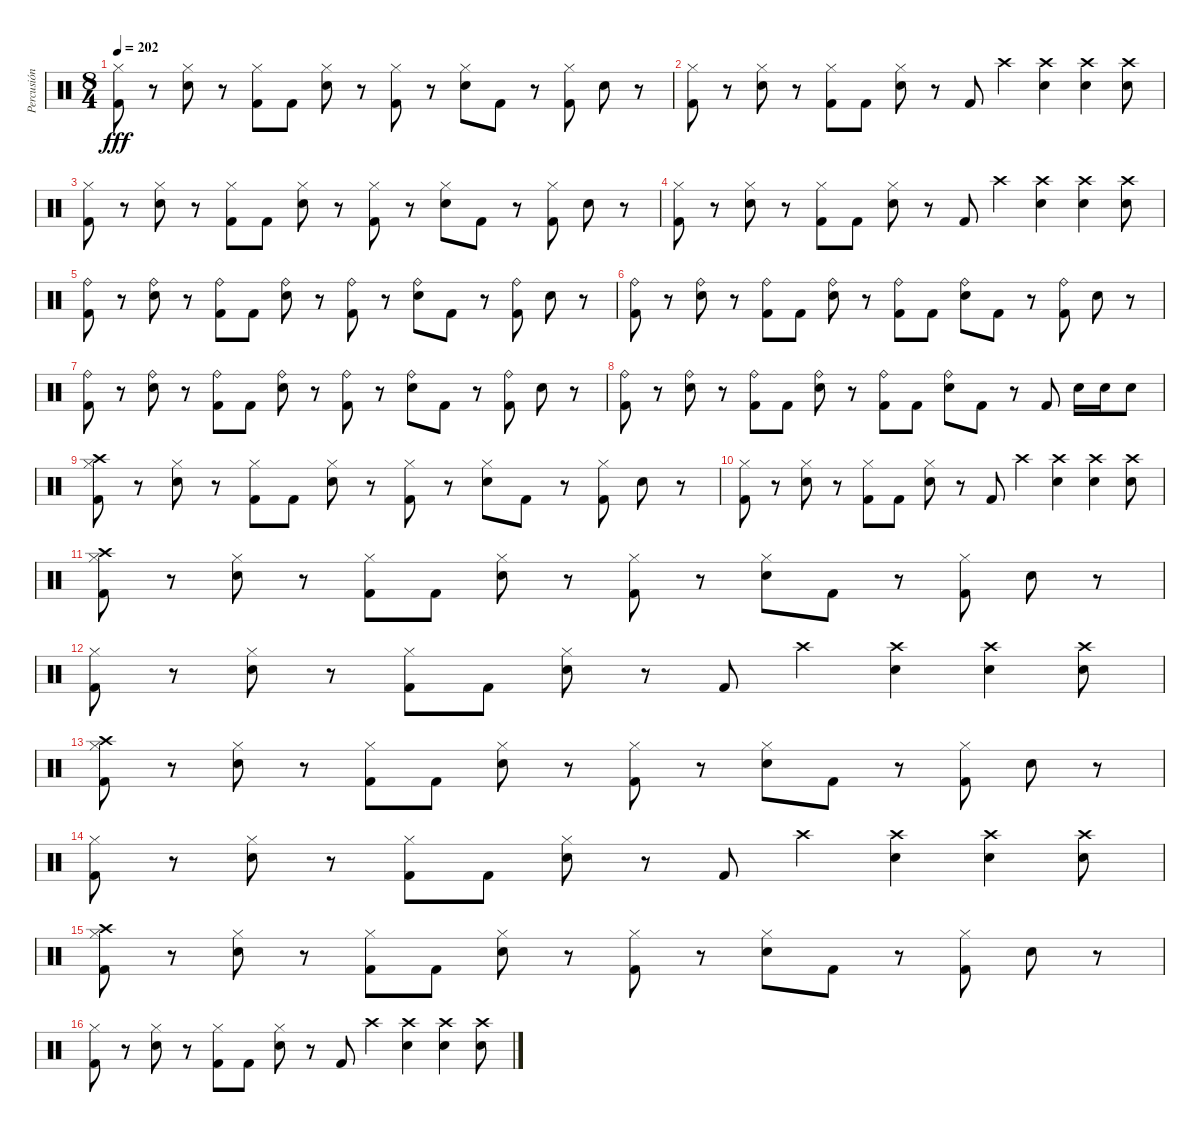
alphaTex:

\track ("Percusión (Santi Doré)" "Percusión ") {instrument percussion}
\staff {score}
\articulation defaults
\ts (8 4)
\tempo 202
\clef neutral
\ks c
("Hi-Hat (closed)" "Kick (hit) 2").8{dy fff} r.8 ("Hi-Hat (closed)" "Electric Snare (hit)").8 r.8 ("Hi-Hat (closed)" "Kick (hit) 2").8 "Kick (hit) 2".8 ("Hi-Hat (closed)" "Electric Snare (hit)").8 r.8 ("Hi-Hat (closed)" "Kick (hit) 2").8 r.8 ("Hi-Hat (closed)" "Electric Snare (hit)").8 "Kick (hit) 2".8 r.8 ("Hi-Hat (closed)" "Kick (hit) 2").8 "Electric Snare (hit)".8 r.8 |
("Hi-Hat (closed)" "Kick (hit) 2").8 r.8 ("Hi-Hat (closed)" "Electric Snare (hit)").8 r.8 ("Hi-Hat (closed)" "Kick (hit) 2").8 "Kick (hit) 2".8 ("Hi-Hat (closed)" "Electric Snare (hit)").8 r.8 "Kick (hit) 2".8 "Crash high (hit)".4 ("Crash high (hit)" "Electric Snare (hit)").4 ("Crash high (hit)" "Electric Snare (hit)").4 ("Crash high (hit)" "Electric Snare (hit)").8 |
("Hi-Hat (closed)" "Kick (hit) 2").8 r.8 ("Hi-Hat (closed)" "Electric Snare (hit)").8 r.8 ("Hi-Hat (closed)" "Kick (hit) 2").8 "Kick (hit) 2".8 ("Hi-Hat (closed)" "Electric Snare (hit)").8 r.8 ("Hi-Hat (closed)" "Kick (hit) 2").8 r.8 ("Hi-Hat (closed)" "Electric Snare (hit)").8 "Kick (hit) 2".8 r.8 ("Hi-Hat (closed)" "Kick (hit) 2").8 "Electric Snare (hit)".8 r.8 |
("Hi-Hat (closed)" "Kick (hit) 2").8 r.8 ("Hi-Hat (closed)" "Electric Snare (hit)").8 r.8 ("Hi-Hat (closed)" "Kick (hit) 2").8 "Kick (hit) 2".8 ("Hi-Hat (closed)" "Electric Snare (hit)").8 r.8 "Kick (hit) 2".8 "Crash high (hit)".4 ("Crash high (hit)" "Electric Snare (hit)").4 ("Crash high (hit)" "Electric Snare (hit)").4 ("Crash high (hit)" "Electric Snare (hit)").8 |
("Ride (bell)" "Kick (hit) 2").8 r.8 ("Ride (bell)" "Electric Snare (hit)").8 r.8 ("Ride (bell)" "Kick (hit) 2").8 "Kick (hit) 2".8 ("Ride (bell)" "Electric Snare (hit)").8 r.8 ("Ride (bell)" "Kick (hit) 2").8 r.8 ("Ride (bell)" "Electric Snare (hit)").8 "Kick (hit) 2".8 r.8 ("Ride (bell)" "Kick (hit) 2").8 "Electric Snare (hit)".8 r.8 |
("Ride (bell)" "Kick (hit) 2").8 r.8 ("Ride (bell)" "Electric Snare (hit)").8 r.8 ("Ride (bell)" "Kick (hit) 2").8 "Kick (hit) 2".8 ("Ride (bell)" "Electric Snare (hit)").8 r.8 ("Ride (bell)" "Kick (hit) 2").8 "Kick (hit) 2".8 ("Ride (bell)" "Electric Snare (hit)").8 "Kick (hit) 2".8 r.8 ("Ride (bell)" "Kick (hit) 2").8 "Electric Snare (hit)".8 r.8 |
("Ride (bell)" "Kick (hit) 2").8 r.8 ("Ride (bell)" "Electric Snare (hit)").8 r.8 ("Ride (bell)" "Kick (hit) 2").8 "Kick (hit) 2".8 ("Ride (bell)" "Electric Snare (hit)").8 r.8 ("Ride (bell)" "Kick (hit) 2").8 r.8 ("Ride (bell)" "Electric Snare (hit)").8 "Kick (hit) 2".8 r.8 ("Ride (bell)" "Kick (hit) 2").8 "Electric Snare (hit)".8 r.8 |
("Ride (bell)" "Kick (hit) 2").8 r.8 ("Ride (bell)" "Electric Snare (hit)").8 r.8 ("Ride (bell)" "Kick (hit) 2").8 "Kick (hit) 2".8 ("Ride (bell)" "Electric Snare (hit)").8 r.8 ("Ride (bell)" "Kick (hit) 2").8 "Kick (hit) 2".8 ("Ride (bell)" "Electric Snare (hit)").8 "Kick (hit) 2".8 r.8 "Kick (hit) 2".8 "Electric Snare (hit)".16 "Electric Snare (hit)".16 "Electric Snare (hit)".8 |
("Crash high (hit)" "Hi-Hat (closed)" "Kick (hit) 2").8 r.8 ("Hi-Hat (closed)" "Electric Snare (hit)").8 r.8 ("Hi-Hat (closed)" "Kick (hit) 2").8 "Kick (hit) 2".8 ("Hi-Hat (closed)" "Electric Snare (hit)").8 r.8 ("Hi-Hat (closed)" "Kick (hit) 2").8 r.8 ("Hi-Hat (closed)" "Electric Snare (hit)").8 "Kick (hit) 2".8 r.8 ("Hi-Hat (closed)" "Kick (hit) 2").8 "Electric Snare (hit)".8 r.8 |
("Hi-Hat (closed)" "Kick (hit) 2").8 r.8 ("Hi-Hat (closed)" "Electric Snare (hit)").8 r.8 ("Hi-Hat (closed)" "Kick (hit) 2").8 "Kick (hit) 2".8 ("Hi-Hat (closed)" "Electric Snare (hit)").8 r.8 "Kick (hit) 2".8 "Crash high (hit)".4 ("Crash high (hit)" "Electric Snare (hit)").4 ("Crash high (hit)" "Electric Snare (hit)").4 ("Crash high (hit)" "Electric Snare (hit)").8 |
("Crash high (hit)" "Hi-Hat (closed)" "Kick (hit) 2").8 r.8 ("Hi-Hat (closed)" "Electric Snare (hit)").8 r.8 ("Hi-Hat (closed)" "Kick (hit) 2").8 "Kick (hit) 2".8 ("Hi-Hat (closed)" "Electric Snare (hit)").8 r.8 ("Hi-Hat (closed)" "Kick (hit) 2").8 r.8 ("Hi-Hat (closed)" "Electric Snare (hit)").8 "Kick (hit) 2".8 r.8 ("Hi-Hat (closed)" "Kick (hit) 2").8 "Electric Snare (hit)".8 r.8 |
("Hi-Hat (closed)" "Kick (hit) 2").8 r.8 ("Hi-Hat (closed)" "Electric Snare (hit)").8 r.8 ("Hi-Hat (closed)" "Kick (hit) 2").8 "Kick (hit) 2".8 ("Hi-Hat (closed)" "Electric Snare (hit)").8 r.8 "Kick (hit) 2".8 "Crash high (hit)".4 ("Crash high (hit)" "Electric Snare (hit)").4 ("Crash high (hit)" "Electric Snare (hit)").4 ("Crash high (hit)" "Electric Snare (hit)").8 |
("Crash high (hit)" "Hi-Hat (closed)" "Kick (hit) 2").8 r.8 ("Hi-Hat (closed)" "Electric Snare (hit)").8 r.8 ("Hi-Hat (closed)" "Kick (hit) 2").8 "Kick (hit) 2".8 ("Hi-Hat (closed)" "Electric Snare (hit)").8 r.8 ("Hi-Hat (closed)" "Kick (hit) 2").8 r.8 ("Hi-Hat (closed)" "Electric Snare (hit)").8 "Kick (hit) 2".8 r.8 ("Hi-Hat (closed)" "Kick (hit) 2").8 "Electric Snare (hit)".8 r.8 |
("Hi-Hat (closed)" "Kick (hit) 2").8 r.8 ("Hi-Hat (closed)" "Electric Snare (hit)").8 r.8 ("Hi-Hat (closed)" "Kick (hit) 2").8 "Kick (hit) 2".8 ("Hi-Hat (closed)" "Electric Snare (hit)").8 r.8 "Kick (hit) 2".8 "Crash high (hit)".4 ("Crash high (hit)" "Electric Snare (hit)").4 ("Crash high (hit)" "Electric Snare (hit)").4 ("Crash high (hit)" "Electric Snare (hit)").8 |
("Crash high (hit)" "Hi-Hat (closed)" "Kick (hit) 2").8 r.8 ("Hi-Hat (closed)" "Electric Snare (hit)").8 r.8 ("Hi-Hat (closed)" "Kick (hit) 2").8 "Kick (hit) 2".8 ("Hi-Hat (closed)" "Electric Snare (hit)").8 r.8 ("Hi-Hat (closed)" "Kick (hit) 2").8 r.8 ("Hi-Hat (closed)" "Electric Snare (hit)").8 "Kick (hit) 2".8 r.8 ("Hi-Hat (closed)" "Kick (hit) 2").8 "Electric Snare (hit)".8 r.8 |
("Hi-Hat (closed)" "Kick (hit) 2").8 r.8 ("Hi-Hat (closed)" "Electric Snare (hit)").8 r.8 ("Hi-Hat (closed)" "Kick (hit) 2").8 "Kick (hit) 2".8 ("Hi-Hat (closed)" "Electric Snare (hit)").8 r.8 "Kick (hit) 2".8 "Crash high (hit)".4 ("Crash high (hit)" "Electric Snare (hit)").4 ("Crash high (hit)" "Electric Snare (hit)").4 ("Crash high (hit)" "Electric Snare (hit)").8
